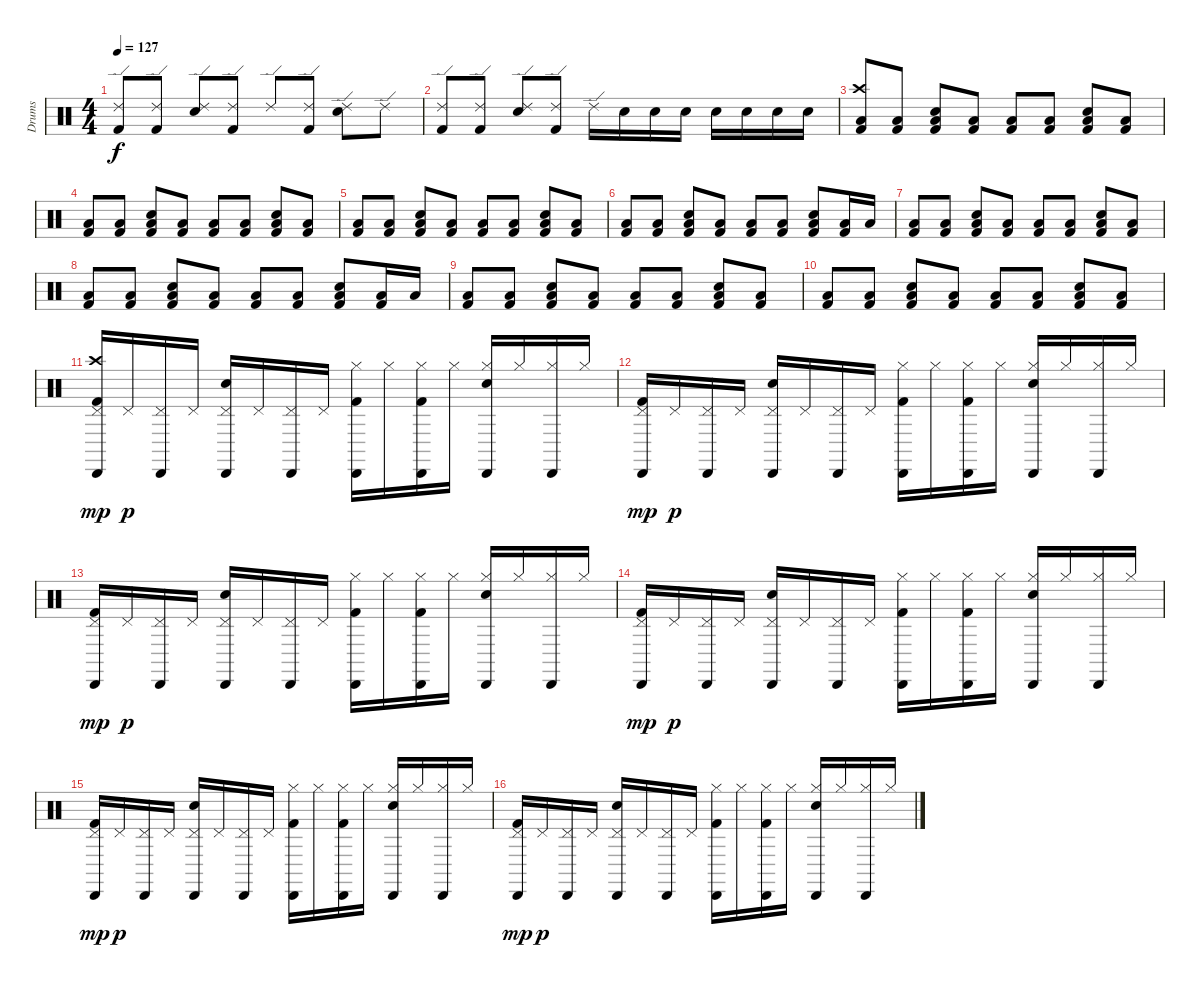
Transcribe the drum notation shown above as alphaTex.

\track ("Drums" "Drums") {instrument percussion}
\staff {score}
\articulation defaults
\ts (4 4)
\tempo 127
\clef neutral
\ks c
("Ride (edge) 2" "Kick (hit) 2").8{dy f} ("Ride (edge) 2" "Kick (hit) 2").8 ("Ride (edge) 2" "Electric Snare (hit)").8 ("Ride (edge) 2" "Kick (hit) 2").8 "Ride (edge) 2".8 ("Ride (edge) 2" "Kick (hit) 2").8 ("Ride (edge) 2" "Electric Snare (hit)").8 "Ride (edge) 2".8 |
("Ride (edge) 2" "Kick (hit) 2").8 ("Ride (edge) 2" "Kick (hit) 2").8 ("Ride (edge) 2" "Electric Snare (hit)").8 ("Ride (edge) 2" "Kick (hit) 2").8 "Ride (edge) 2".16 "Electric Snare (hit)".16 "Electric Snare (hit)".16 "Electric Snare (hit)".16 "Electric Snare (hit)".16 "Electric Snare (hit)".16 "Electric Snare (hit)".16 "Electric Snare (hit)".16 |
("Crash high (hit)" "Low Floor Tom (hit)" "Kick (hit) 2").8 ("Low Floor Tom (hit)" "Kick (hit) 2").8 ("Electric Snare (hit)" "Low Floor Tom (hit)" "Kick (hit) 2").8 ("Low Floor Tom (hit)" "Kick (hit) 2").8 ("Low Floor Tom (hit)" "Kick (hit) 2").8 ("Low Floor Tom (hit)" "Kick (hit) 2").8 ("Electric Snare (hit)" "Low Floor Tom (hit)" "Kick (hit) 2").8 ("Low Floor Tom (hit)" "Kick (hit) 2").8 |
("Low Floor Tom (hit)" "Kick (hit) 2").8 ("Low Floor Tom (hit)" "Kick (hit) 2").8 ("Electric Snare (hit)" "Low Floor Tom (hit)" "Kick (hit) 2").8 ("Low Floor Tom (hit)" "Kick (hit) 2").8 ("Low Floor Tom (hit)" "Kick (hit) 2").8 ("Low Floor Tom (hit)" "Kick (hit) 2").8 ("Electric Snare (hit)" "Low Floor Tom (hit)" "Kick (hit) 2").8 ("Low Floor Tom (hit)" "Kick (hit) 2").8 |
("Low Floor Tom (hit)" "Kick (hit) 2").8 ("Low Floor Tom (hit)" "Kick (hit) 2").8 ("Electric Snare (hit)" "Low Floor Tom (hit)" "Kick (hit) 2").8 ("Low Floor Tom (hit)" "Kick (hit) 2").8 ("Low Floor Tom (hit)" "Kick (hit) 2").8 ("Low Floor Tom (hit)" "Kick (hit) 2").8 ("Electric Snare (hit)" "Low Floor Tom (hit)" "Kick (hit) 2").8 ("Low Floor Tom (hit)" "Kick (hit) 2").8 |
("Low Floor Tom (hit)" "Kick (hit) 2").8 ("Low Floor Tom (hit)" "Kick (hit) 2").8 ("Electric Snare (hit)" "Low Floor Tom (hit)" "Kick (hit) 2").8 ("Low Floor Tom (hit)" "Kick (hit) 2").8 ("Low Floor Tom (hit)" "Kick (hit) 2").8 ("Low Floor Tom (hit)" "Kick (hit) 2").8 ("Electric Snare (hit)" "Low Floor Tom (hit)" "Kick (hit) 2").8 ("Low Floor Tom (hit)" "Kick (hit) 2").16 "Low Floor Tom (hit)".16 |
("Low Floor Tom (hit)" "Kick (hit) 2").8 ("Low Floor Tom (hit)" "Kick (hit) 2").8 ("Electric Snare (hit)" "Low Floor Tom (hit)" "Kick (hit) 2").8 ("Low Floor Tom (hit)" "Kick (hit) 2").8 ("Low Floor Tom (hit)" "Kick (hit) 2").8 ("Low Floor Tom (hit)" "Kick (hit) 2").8 ("Electric Snare (hit)" "Low Floor Tom (hit)" "Kick (hit) 2").8 ("Low Floor Tom (hit)" "Kick (hit) 2").8 |
("Low Floor Tom (hit)" "Kick (hit) 2").8 ("Low Floor Tom (hit)" "Kick (hit) 2").8 ("Electric Snare (hit)" "Low Floor Tom (hit)" "Kick (hit) 2").8 ("Low Floor Tom (hit)" "Kick (hit) 2").8 ("Low Floor Tom (hit)" "Kick (hit) 2").8 ("Low Floor Tom (hit)" "Kick (hit) 2").8 ("Electric Snare (hit)" "Low Floor Tom (hit)" "Kick (hit) 2").8 ("Low Floor Tom (hit)" "Kick (hit) 2").16 "Low Floor Tom (hit)".16 |
("Low Floor Tom (hit)" "Kick (hit) 2").8 ("Low Floor Tom (hit)" "Kick (hit) 2").8 ("Electric Snare (hit)" "Low Floor Tom (hit)" "Kick (hit) 2").8 ("Low Floor Tom (hit)" "Kick (hit) 2").8 ("Low Floor Tom (hit)" "Kick (hit) 2").8 ("Low Floor Tom (hit)" "Kick (hit) 2").8 ("Electric Snare (hit)" "Low Floor Tom (hit)" "Kick (hit) 2").8 ("Low Floor Tom (hit)" "Kick (hit) 2").8 |
("Low Floor Tom (hit)" "Kick (hit) 2").8 ("Low Floor Tom (hit)" "Kick (hit) 2").8 ("Electric Snare (hit)" "Low Floor Tom (hit)" "Kick (hit) 2").8 ("Low Floor Tom (hit)" "Kick (hit) 2").8 ("Low Floor Tom (hit)" "Kick (hit) 2").8 ("Low Floor Tom (hit)" "Kick (hit) 2").8 ("Electric Snare (hit)" "Low Floor Tom (hit)" "Kick (hit) 2").8 ("Low Floor Tom (hit)" "Kick (hit) 2").8 |
("Cabasa (hit)" "Crash high (hit)" "Pedal Hi-Hat (hit)" "Kick (hit) 2").16{dy mp} "Pedal Hi-Hat (hit)".16{dy p} ("Cabasa (hit)" "Pedal Hi-Hat (hit)").16 "Pedal Hi-Hat (hit)".16 ("Cabasa (hit)" "Pedal Hi-Hat (hit)" "Electric Snare (hit)").16 "Pedal Hi-Hat (hit)".16 ("Cabasa (hit)" "Pedal Hi-Hat (hit)").16 "Pedal Hi-Hat (hit)".16 ("Cabasa (hit)" "Hi-Hat (closed)" "Kick (hit) 2").16 "Hi-Hat (closed)".16 ("Cabasa (hit)" "Hi-Hat (closed)" "Kick (hit) 2").16 "Hi-Hat (closed)".16 ("Cabasa (hit)" "Hi-Hat (closed)" "Electric Snare (hit)").16 "Hi-Hat (closed)".16 ("Cabasa (hit)" "Hi-Hat (closed)").16 "Hi-Hat (closed)".16 |
("Cabasa (hit)" "Pedal Hi-Hat (hit)" "Kick (hit) 2").16{dy mp} "Pedal Hi-Hat (hit)".16{dy p} ("Cabasa (hit)" "Pedal Hi-Hat (hit)").16 "Pedal Hi-Hat (hit)".16 ("Cabasa (hit)" "Pedal Hi-Hat (hit)" "Electric Snare (hit)").16 "Pedal Hi-Hat (hit)".16 ("Cabasa (hit)" "Pedal Hi-Hat (hit)").16 "Pedal Hi-Hat (hit)".16 ("Cabasa (hit)" "Hi-Hat (closed)" "Kick (hit) 2").16 "Hi-Hat (closed)".16 ("Cabasa (hit)" "Hi-Hat (closed)" "Kick (hit) 2").16 "Hi-Hat (closed)".16 ("Cabasa (hit)" "Hi-Hat (closed)" "Electric Snare (hit)").16 "Hi-Hat (closed)".16 ("Cabasa (hit)" "Hi-Hat (closed)").16 "Hi-Hat (closed)".16 |
("Cabasa (hit)" "Pedal Hi-Hat (hit)" "Kick (hit) 2").16{dy mp} "Pedal Hi-Hat (hit)".16{dy p} ("Cabasa (hit)" "Pedal Hi-Hat (hit)").16 "Pedal Hi-Hat (hit)".16 ("Cabasa (hit)" "Pedal Hi-Hat (hit)" "Electric Snare (hit)").16 "Pedal Hi-Hat (hit)".16 ("Cabasa (hit)" "Pedal Hi-Hat (hit)").16 "Pedal Hi-Hat (hit)".16 ("Cabasa (hit)" "Hi-Hat (closed)" "Kick (hit) 2").16 "Hi-Hat (closed)".16 ("Cabasa (hit)" "Hi-Hat (closed)" "Kick (hit) 2").16 "Hi-Hat (closed)".16 ("Cabasa (hit)" "Hi-Hat (closed)" "Electric Snare (hit)").16 "Hi-Hat (closed)".16 ("Cabasa (hit)" "Hi-Hat (closed)").16 "Hi-Hat (closed)".16 |
("Cabasa (hit)" "Pedal Hi-Hat (hit)" "Kick (hit) 2").16{dy mp} "Pedal Hi-Hat (hit)".16{dy p} ("Cabasa (hit)" "Pedal Hi-Hat (hit)").16 "Pedal Hi-Hat (hit)".16 ("Cabasa (hit)" "Pedal Hi-Hat (hit)" "Electric Snare (hit)").16 "Pedal Hi-Hat (hit)".16 ("Cabasa (hit)" "Pedal Hi-Hat (hit)").16 "Pedal Hi-Hat (hit)".16 ("Cabasa (hit)" "Hi-Hat (closed)" "Kick (hit) 2").16 "Hi-Hat (closed)".16 ("Cabasa (hit)" "Hi-Hat (closed)" "Kick (hit) 2").16 "Hi-Hat (closed)".16 ("Cabasa (hit)" "Hi-Hat (closed)" "Electric Snare (hit)").16 "Hi-Hat (closed)".16 ("Cabasa (hit)" "Hi-Hat (closed)").16 "Hi-Hat (closed)".16 |
("Cabasa (hit)" "Pedal Hi-Hat (hit)" "Kick (hit) 2").16{dy mp} "Pedal Hi-Hat (hit)".16{dy p} ("Cabasa (hit)" "Pedal Hi-Hat (hit)").16 "Pedal Hi-Hat (hit)".16 ("Cabasa (hit)" "Pedal Hi-Hat (hit)" "Electric Snare (hit)").16 "Pedal Hi-Hat (hit)".16 ("Cabasa (hit)" "Pedal Hi-Hat (hit)").16 "Pedal Hi-Hat (hit)".16 ("Cabasa (hit)" "Hi-Hat (closed)" "Kick (hit) 2").16 "Hi-Hat (closed)".16 ("Cabasa (hit)" "Hi-Hat (closed)" "Kick (hit) 2").16 "Hi-Hat (closed)".16 ("Cabasa (hit)" "Hi-Hat (closed)" "Electric Snare (hit)").16 "Hi-Hat (closed)".16 ("Cabasa (hit)" "Hi-Hat (closed)").16 "Hi-Hat (closed)".16 |
("Cabasa (hit)" "Pedal Hi-Hat (hit)" "Kick (hit) 2").16{dy mp} "Pedal Hi-Hat (hit)".16{dy p} ("Cabasa (hit)" "Pedal Hi-Hat (hit)").16 "Pedal Hi-Hat (hit)".16 ("Cabasa (hit)" "Pedal Hi-Hat (hit)" "Electric Snare (hit)").16 "Pedal Hi-Hat (hit)".16 ("Cabasa (hit)" "Pedal Hi-Hat (hit)").16 "Pedal Hi-Hat (hit)".16 ("Cabasa (hit)" "Hi-Hat (closed)" "Kick (hit) 2").16 "Hi-Hat (closed)".16 ("Cabasa (hit)" "Hi-Hat (closed)" "Kick (hit) 2").16 "Hi-Hat (closed)".16 ("Cabasa (hit)" "Hi-Hat (closed)" "Electric Snare (hit)").16 "Hi-Hat (closed)".16 ("Cabasa (hit)" "Hi-Hat (closed)").16 "Hi-Hat (closed)".16
